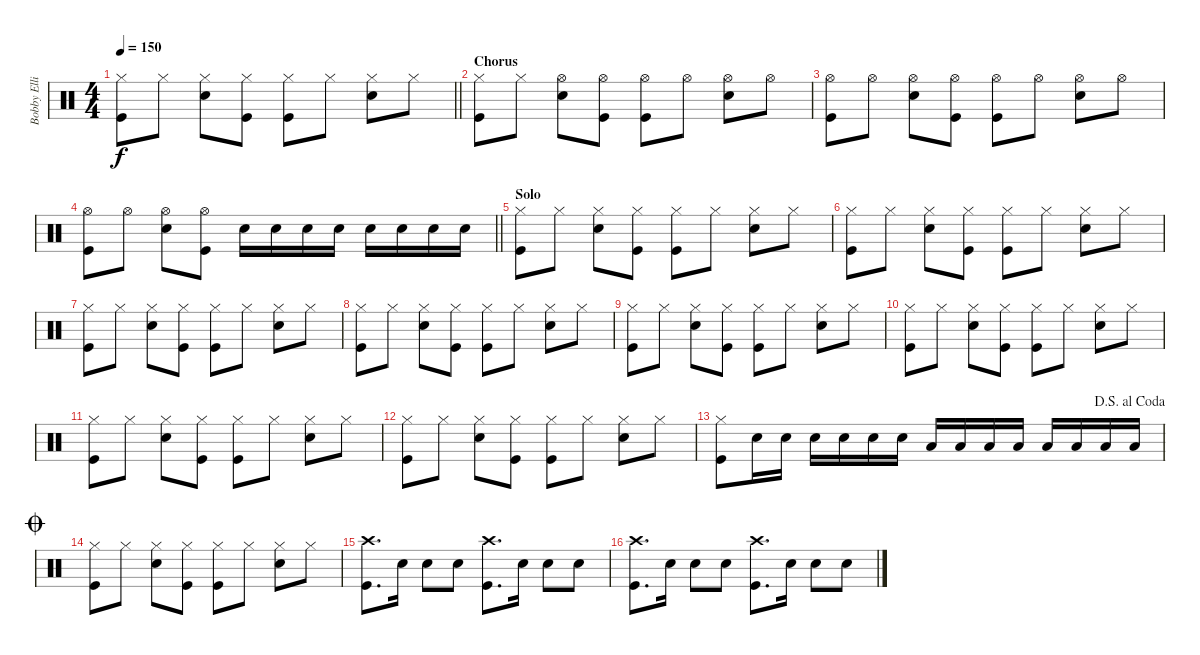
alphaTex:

\track ("Bobby Elliott" "Bobby Elli") {instrument percussion}
\staff {score}
\articulation defaults
\ts (4 4)
\tempo 150
\clef neutral
\barLineRight lightlight
\ks c
("Hi-Hat (closed)" "Kick (hit)").8{dy f} "Hi-Hat (closed)".8 ("Hi-Hat (closed)" "Snare (hit) 2").8 ("Hi-Hat (closed)" "Kick (hit)").8 ("Hi-Hat (closed)" "Kick (hit)").8 "Hi-Hat (closed)".8 ("Hi-Hat (closed)" "Snare (hit) 2").8 "Hi-Hat (closed)".8 |
\section ("" "Chorus")
("Hi-Hat (closed)" "Kick (hit)").8 "Hi-Hat (closed)".8 ("Hi-Hat (open)" "Snare (hit) 2").8 ("Hi-Hat (open)" "Kick (hit)").8 ("Hi-Hat (open)" "Kick (hit)").8 "Hi-Hat (open)".8 ("Hi-Hat (open)" "Snare (hit) 2").8 "Hi-Hat (open)".8 |
("Hi-Hat (open)" "Kick (hit)").8 "Hi-Hat (open)".8 ("Hi-Hat (open)" "Snare (hit) 2").8 ("Hi-Hat (open)" "Kick (hit)").8 ("Hi-Hat (open)" "Kick (hit)").8 "Hi-Hat (open)".8 ("Hi-Hat (open)" "Snare (hit) 2").8 "Hi-Hat (open)".8 |
\barLineRight lightlight
("Hi-Hat (open)" "Kick (hit)").8 "Hi-Hat (open)".8 ("Hi-Hat (open)" "Snare (hit) 2").8 ("Hi-Hat (open)" "Kick (hit)").8 "Snare (hit) 2".16 "Snare (hit) 2".16 "Snare (hit) 2".16 "Snare (hit) 2".16 "Snare (hit) 2".16 "Snare (hit) 2".16 "Snare (hit) 2".16 "Snare (hit) 2".16 |
\section ("" "Solo")
("Hi-Hat (closed)" "Kick (hit)").8 "Hi-Hat (closed)".8 ("Hi-Hat (closed)" "Snare (hit) 2").8 ("Hi-Hat (closed)" "Kick (hit)").8 ("Hi-Hat (closed)" "Kick (hit)").8 "Hi-Hat (closed)".8 ("Hi-Hat (closed)" "Snare (hit) 2").8 "Hi-Hat (closed)".8 |
("Hi-Hat (closed)" "Kick (hit)").8 "Hi-Hat (closed)".8 ("Hi-Hat (closed)" "Snare (hit) 2").8 ("Hi-Hat (closed)" "Kick (hit)").8 ("Hi-Hat (closed)" "Kick (hit)").8 "Hi-Hat (closed)".8 ("Hi-Hat (closed)" "Snare (hit) 2").8 "Hi-Hat (closed)".8 |
("Hi-Hat (closed)" "Kick (hit)").8 "Hi-Hat (closed)".8 ("Hi-Hat (closed)" "Snare (hit) 2").8 ("Hi-Hat (closed)" "Kick (hit)").8 ("Hi-Hat (closed)" "Kick (hit)").8 "Hi-Hat (closed)".8 ("Hi-Hat (closed)" "Snare (hit) 2").8 "Hi-Hat (closed)".8 |
("Hi-Hat (closed)" "Kick (hit)").8 "Hi-Hat (closed)".8 ("Hi-Hat (closed)" "Snare (hit) 2").8 ("Hi-Hat (closed)" "Kick (hit)").8 ("Hi-Hat (closed)" "Kick (hit)").8 "Hi-Hat (closed)".8 ("Hi-Hat (closed)" "Snare (hit) 2").8 "Hi-Hat (closed)".8 |
("Hi-Hat (closed)" "Kick (hit)").8 "Hi-Hat (closed)".8 ("Hi-Hat (closed)" "Snare (hit) 2").8 ("Hi-Hat (closed)" "Kick (hit)").8 ("Hi-Hat (closed)" "Kick (hit)").8 "Hi-Hat (closed)".8 ("Hi-Hat (closed)" "Snare (hit) 2").8 "Hi-Hat (closed)".8 |
("Hi-Hat (closed)" "Kick (hit)").8 "Hi-Hat (closed)".8 ("Hi-Hat (closed)" "Snare (hit) 2").8 ("Hi-Hat (closed)" "Kick (hit)").8 ("Hi-Hat (closed)" "Kick (hit)").8 "Hi-Hat (closed)".8 ("Hi-Hat (closed)" "Snare (hit) 2").8 "Hi-Hat (closed)".8 |
("Hi-Hat (closed)" "Kick (hit)").8 "Hi-Hat (closed)".8 ("Hi-Hat (closed)" "Snare (hit) 2").8 ("Hi-Hat (closed)" "Kick (hit)").8 ("Hi-Hat (closed)" "Kick (hit)").8 "Hi-Hat (closed)".8 ("Hi-Hat (closed)" "Snare (hit) 2").8 "Hi-Hat (closed)".8 |
("Hi-Hat (closed)" "Kick (hit)").8 "Hi-Hat (closed)".8 ("Hi-Hat (closed)" "Snare (hit) 2").8 ("Hi-Hat (closed)" "Kick (hit)").8 ("Hi-Hat (closed)" "Kick (hit)").8 "Hi-Hat (closed)".8 ("Hi-Hat (closed)" "Snare (hit) 2").8 "Hi-Hat (closed)".8 |
\jump dalsegnoalcoda
("Hi-Hat (closed)" "Kick (hit)").8 "Snare (hit) 2".16 "Snare (hit) 2".16 "Snare (hit) 2".16 "Snare (hit) 2".16 "Snare (hit) 2".16 "Snare (hit) 2".16 "Low Floor Tom (hit)".16 "Low Floor Tom (hit)".16 "Low Floor Tom (hit)".16 "Low Floor Tom (hit)".16 "Low Floor Tom (hit)".16 "Low Floor Tom (hit)".16 "Low Floor Tom (hit)".16 "Low Floor Tom (hit)".16 |
\jump coda
("Hi-Hat (closed)" "Kick (hit)").8 "Hi-Hat (closed)".8 ("Hi-Hat (closed)" "Snare (hit) 2").8 ("Hi-Hat (closed)" "Kick (hit)").8 ("Hi-Hat (closed)" "Kick (hit)").8 "Hi-Hat (closed)".8 ("Hi-Hat (closed)" "Snare (hit) 2").8 "Hi-Hat (closed)".8 |
("Crash high (hit)" "Kick (hit)").8{d} "Snare (hit) 2".16 "Snare (hit) 2".8 "Snare (hit) 2".8 ("Crash high (hit)" "Kick (hit)").8{d} "Snare (hit) 2".16 "Snare (hit) 2".8 "Snare (hit) 2".8 |
("Crash high (hit)" "Kick (hit)").8{d} "Snare (hit) 2".16 "Snare (hit) 2".8 "Snare (hit) 2".8 ("Crash high (hit)" "Kick (hit)").8{d} "Snare (hit) 2".16 "Snare (hit) 2".8 "Snare (hit) 2".8
